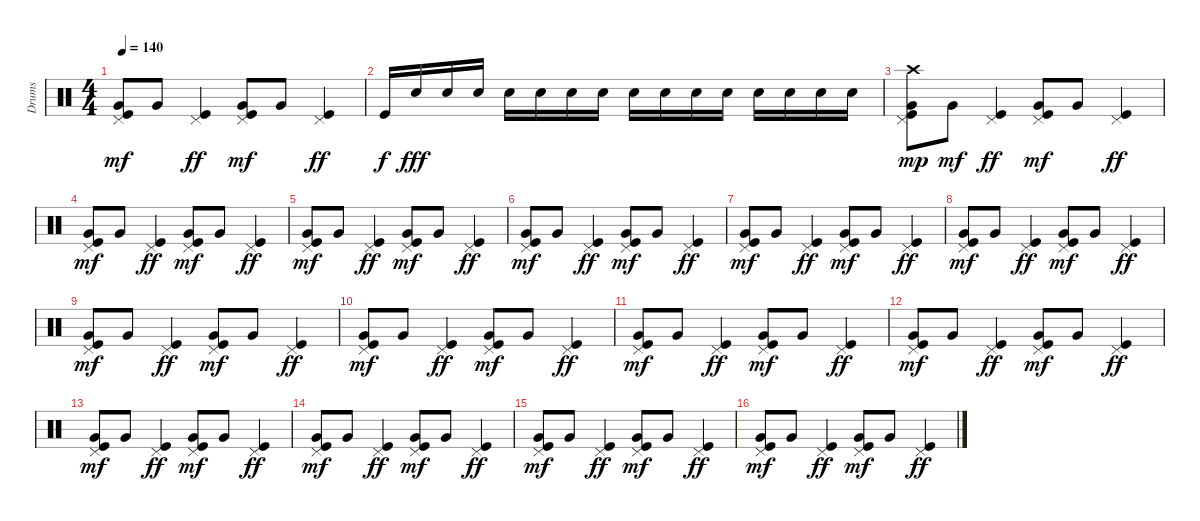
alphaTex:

\track ("Drums" "Drums") {instrument percussion}
\staff {score}
\articulation defaults
\ts (4 4)
\tempo 140
\clef neutral
\ks c
("Pedal Hi-Hat (hit)" "Kick (hit)" "Very Low Tom (hit)").8{dy mf} "Very Low Tom (hit)".8 ("Pedal Hi-Hat (hit)" "Kick (hit)").4{dy ff} ("Pedal Hi-Hat (hit)" "Kick (hit)" "Very Low Tom (hit)").8{dy mf} "Very Low Tom (hit)".8 ("Pedal Hi-Hat (hit)" "Kick (hit)").4{dy ff} |
"Kick (hit)".16{dy f} "Electric Snare (hit)".16{dy fff} "Electric Snare (hit)".16 "Electric Snare (hit)".16 "Electric Snare (hit)".16 "Electric Snare (hit)".16 "Electric Snare (hit)".16 "Electric Snare (hit)".16 "Electric Snare (hit)".16 "Electric Snare (hit)".16 "Electric Snare (hit)".16 "Electric Snare (hit)".16 "Electric Snare (hit)".16 "Electric Snare (hit)".16 "Electric Snare (hit)".16 "Electric Snare (hit)".16 |
("Pedal Hi-Hat (hit)" "Kick (hit)" "Very Low Tom (hit)" "Crash high (hit)").8{dy mp} "Very Low Tom (hit)".8{dy mf} ("Pedal Hi-Hat (hit)" "Kick (hit)").4{dy ff} ("Pedal Hi-Hat (hit)" "Kick (hit)" "Very Low Tom (hit)").8{dy mf} "Very Low Tom (hit)".8 ("Pedal Hi-Hat (hit)" "Kick (hit)").4{dy ff} |
("Pedal Hi-Hat (hit)" "Kick (hit)" "Very Low Tom (hit)").8{dy mf} "Very Low Tom (hit)".8 ("Pedal Hi-Hat (hit)" "Kick (hit)").4{dy ff} ("Pedal Hi-Hat (hit)" "Kick (hit)" "Very Low Tom (hit)").8{dy mf} "Very Low Tom (hit)".8 ("Pedal Hi-Hat (hit)" "Kick (hit)").4{dy ff} |
("Pedal Hi-Hat (hit)" "Kick (hit)" "Very Low Tom (hit)").8{dy mf} "Very Low Tom (hit)".8 ("Pedal Hi-Hat (hit)" "Kick (hit)").4{dy ff} ("Pedal Hi-Hat (hit)" "Kick (hit)" "Very Low Tom (hit)").8{dy mf} "Very Low Tom (hit)".8 ("Pedal Hi-Hat (hit)" "Kick (hit)").4{dy ff} |
("Pedal Hi-Hat (hit)" "Kick (hit)" "Very Low Tom (hit)").8{dy mf} "Very Low Tom (hit)".8 ("Pedal Hi-Hat (hit)" "Kick (hit)").4{dy ff} ("Pedal Hi-Hat (hit)" "Kick (hit)" "Very Low Tom (hit)").8{dy mf} "Very Low Tom (hit)".8 ("Pedal Hi-Hat (hit)" "Kick (hit)").4{dy ff} |
("Pedal Hi-Hat (hit)" "Kick (hit)" "Very Low Tom (hit)").8{dy mf} "Very Low Tom (hit)".8 ("Pedal Hi-Hat (hit)" "Kick (hit)").4{dy ff} ("Pedal Hi-Hat (hit)" "Kick (hit)" "Very Low Tom (hit)").8{dy mf} "Very Low Tom (hit)".8 ("Pedal Hi-Hat (hit)" "Kick (hit)").4{dy ff} |
("Pedal Hi-Hat (hit)" "Kick (hit)" "Very Low Tom (hit)").8{dy mf} "Very Low Tom (hit)".8 ("Pedal Hi-Hat (hit)" "Kick (hit)").4{dy ff} ("Pedal Hi-Hat (hit)" "Kick (hit)" "Very Low Tom (hit)").8{dy mf} "Very Low Tom (hit)".8 ("Pedal Hi-Hat (hit)" "Kick (hit)").4{dy ff} |
("Pedal Hi-Hat (hit)" "Kick (hit)" "Very Low Tom (hit)").8{dy mf} "Very Low Tom (hit)".8 ("Pedal Hi-Hat (hit)" "Kick (hit)").4{dy ff} ("Pedal Hi-Hat (hit)" "Kick (hit)" "Very Low Tom (hit)").8{dy mf} "Very Low Tom (hit)".8 ("Pedal Hi-Hat (hit)" "Kick (hit)").4{dy ff} |
("Pedal Hi-Hat (hit)" "Kick (hit)" "Very Low Tom (hit)").8{dy mf} "Very Low Tom (hit)".8 ("Pedal Hi-Hat (hit)" "Kick (hit)").4{dy ff} ("Pedal Hi-Hat (hit)" "Kick (hit)" "Very Low Tom (hit)").8{dy mf} "Very Low Tom (hit)".8 ("Pedal Hi-Hat (hit)" "Kick (hit)").4{dy ff} |
("Pedal Hi-Hat (hit)" "Kick (hit)" "Very Low Tom (hit)").8{dy mf} "Very Low Tom (hit)".8 ("Pedal Hi-Hat (hit)" "Kick (hit)").4{dy ff} ("Pedal Hi-Hat (hit)" "Kick (hit)" "Very Low Tom (hit)").8{dy mf} "Very Low Tom (hit)".8 ("Pedal Hi-Hat (hit)" "Kick (hit)").4{dy ff} |
("Pedal Hi-Hat (hit)" "Kick (hit)" "Very Low Tom (hit)").8{dy mf} "Very Low Tom (hit)".8 ("Pedal Hi-Hat (hit)" "Kick (hit)").4{dy ff} ("Pedal Hi-Hat (hit)" "Kick (hit)" "Very Low Tom (hit)").8{dy mf} "Very Low Tom (hit)".8 ("Pedal Hi-Hat (hit)" "Kick (hit)").4{dy ff} |
("Pedal Hi-Hat (hit)" "Kick (hit)" "Very Low Tom (hit)").8{dy mf} "Very Low Tom (hit)".8 ("Pedal Hi-Hat (hit)" "Kick (hit)").4{dy ff} ("Pedal Hi-Hat (hit)" "Kick (hit)" "Very Low Tom (hit)").8{dy mf} "Very Low Tom (hit)".8 ("Pedal Hi-Hat (hit)" "Kick (hit)").4{dy ff} |
("Pedal Hi-Hat (hit)" "Kick (hit)" "Very Low Tom (hit)").8{dy mf} "Very Low Tom (hit)".8 ("Pedal Hi-Hat (hit)" "Kick (hit)").4{dy ff} ("Pedal Hi-Hat (hit)" "Kick (hit)" "Very Low Tom (hit)").8{dy mf} "Very Low Tom (hit)".8 ("Pedal Hi-Hat (hit)" "Kick (hit)").4{dy ff} |
("Pedal Hi-Hat (hit)" "Kick (hit)" "Very Low Tom (hit)").8{dy mf} "Very Low Tom (hit)".8 ("Pedal Hi-Hat (hit)" "Kick (hit)").4{dy ff} ("Pedal Hi-Hat (hit)" "Kick (hit)" "Very Low Tom (hit)").8{dy mf} "Very Low Tom (hit)".8 ("Pedal Hi-Hat (hit)" "Kick (hit)").4{dy ff} |
("Pedal Hi-Hat (hit)" "Kick (hit)" "Very Low Tom (hit)").8{dy mf} "Very Low Tom (hit)".8 ("Pedal Hi-Hat (hit)" "Kick (hit)").4{dy ff} ("Pedal Hi-Hat (hit)" "Kick (hit)" "Very Low Tom (hit)").8{dy mf} "Very Low Tom (hit)".8 ("Pedal Hi-Hat (hit)" "Kick (hit)").4{dy ff}
